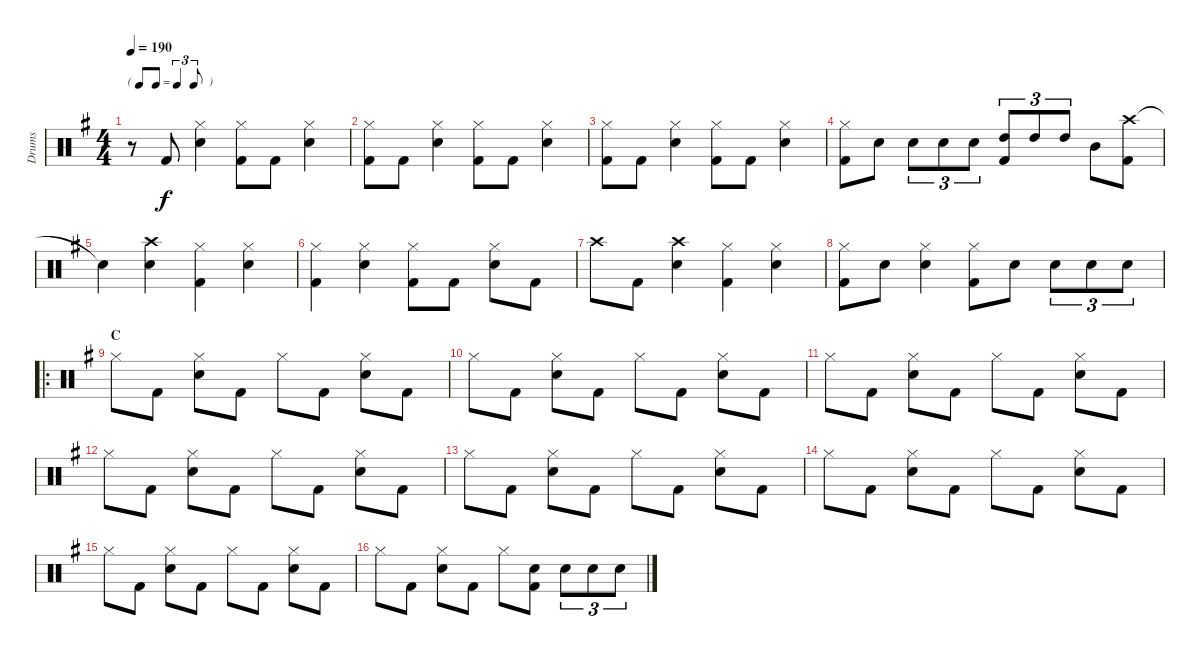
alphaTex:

\track ("Drums" "Drums") {instrument percussion}
\staff {score}
\articulation defaults
\ts (4 4)
\tf triplet8th
\tempo 190
\clef neutral
\ks g
r.8{dy f} "Kick (hit) 2".8 ("Hi-Hat (closed)" "Snare (hit) 2").4 ("Hi-Hat (closed)" "Kick (hit) 2").8 "Kick (hit) 2".8 ("Hi-Hat (closed)" "Snare (hit) 2").4 |
("Hi-Hat (closed)" "Kick (hit) 2").8 "Kick (hit) 2".8 ("Hi-Hat (closed)" "Snare (hit) 2").4 ("Hi-Hat (closed)" "Kick (hit) 2").8 "Kick (hit) 2".8 ("Hi-Hat (closed)" "Snare (hit) 2").4 |
("Hi-Hat (closed)" "Kick (hit) 2").8 "Kick (hit) 2".8 ("Hi-Hat (closed)" "Snare (hit) 2").4 ("Hi-Hat (closed)" "Kick (hit) 2").8 "Kick (hit) 2".8 ("Hi-Hat (closed)" "Snare (hit) 2").4 |
("Hi-Hat (closed)" "Kick (hit) 2").8 "Snare (hit) 2".8 "Snare (hit) 2".8{tu (3 2)} "Snare (hit) 2".8{tu (3 2)} "Snare (hit) 2".8{tu (3 2)} ("High Tom (hit)" "Kick (hit) 2").8{tu (3 2)} "High Tom (hit)".8{tu (3 2)} "High Tom (hit)".8{tu (3 2)} "Mid Tom (hit)".8 ("Crash high (hit)" "Kick (hit) 2").8 |
"Snare (hit)"{t}.4 ("Crash high (hit)" "Snare (hit) 2").4 ("Hi-Hat (closed)" "Kick (hit) 2").4 ("Hi-Hat (closed)" "Snare (hit) 2").4 |
("Hi-Hat (closed)" "Kick (hit) 2").4 ("Hi-Hat (closed)" "Snare (hit) 2").4 ("Hi-Hat (closed)" "Kick (hit) 2").8 "Kick (hit) 2".8 ("Hi-Hat (closed)" "Snare (hit) 2").8 "Kick (hit) 2".8 |
"Crash high (hit)".8 "Kick (hit) 2".8 ("Crash high (hit)" "Snare (hit) 2").4 ("Hi-Hat (closed)" "Kick (hit) 2").4 ("Hi-Hat (closed)" "Snare (hit) 2").4 |
("Hi-Hat (closed)" "Kick (hit) 2").8 "Snare (hit) 2".8 ("Hi-Hat (closed)" "Snare (hit) 2").4 ("Hi-Hat (closed)" "Kick (hit) 2").8 "Snare (hit) 2".8 "Snare (hit) 2".8{tu (3 2)} "Snare (hit) 2".8{tu (3 2)} "Snare (hit) 2".8{tu (3 2)} |
\ro
\section ("" "C")
"Hi-Hat (closed)".8 "Kick (hit) 2".8 ("Hi-Hat (closed)" "Snare (hit) 2").8 "Kick (hit) 2".8 "Hi-Hat (closed)".8 "Kick (hit) 2".8 ("Hi-Hat (closed)" "Snare (hit) 2").8 "Kick (hit) 2".8 |
"Hi-Hat (closed)".8 "Kick (hit) 2".8 ("Hi-Hat (closed)" "Snare (hit) 2").8 "Kick (hit) 2".8 "Hi-Hat (closed)".8 "Kick (hit) 2".8 ("Hi-Hat (closed)" "Snare (hit) 2").8 "Kick (hit) 2".8 |
"Hi-Hat (closed)".8 "Kick (hit) 2".8 ("Hi-Hat (closed)" "Snare (hit) 2").8 "Kick (hit) 2".8 "Hi-Hat (closed)".8 "Kick (hit) 2".8 ("Hi-Hat (closed)" "Snare (hit) 2").8 "Kick (hit) 2".8 |
"Hi-Hat (closed)".8 "Kick (hit) 2".8 ("Hi-Hat (closed)" "Snare (hit) 2").8 "Kick (hit) 2".8 "Hi-Hat (closed)".8 "Kick (hit) 2".8 ("Hi-Hat (closed)" "Snare (hit) 2").8 "Kick (hit) 2".8 |
"Hi-Hat (closed)".8 "Kick (hit) 2".8 ("Hi-Hat (closed)" "Snare (hit) 2").8 "Kick (hit) 2".8 "Hi-Hat (closed)".8 "Kick (hit) 2".8 ("Hi-Hat (closed)" "Snare (hit) 2").8 "Kick (hit) 2".8 |
"Hi-Hat (closed)".8 "Kick (hit) 2".8 ("Hi-Hat (closed)" "Snare (hit) 2").8 "Kick (hit) 2".8 "Hi-Hat (closed)".8 "Kick (hit) 2".8 ("Hi-Hat (closed)" "Snare (hit) 2").8 "Kick (hit) 2".8 |
"Hi-Hat (closed)".8 "Kick (hit) 2".8 ("Hi-Hat (closed)" "Snare (hit) 2").8 "Kick (hit) 2".8 "Hi-Hat (closed)".8 "Kick (hit) 2".8 ("Hi-Hat (closed)" "Snare (hit) 2").8 "Kick (hit) 2".8 |
"Hi-Hat (closed)".8 "Kick (hit) 2".8 ("Hi-Hat (closed)" "Snare (hit) 2").8 "Kick (hit) 2".8 "Hi-Hat (closed)".8 ("Snare (hit) 2" "Kick (hit) 2").8 "Snare (hit) 2".8{tu (3 2)} "Snare (hit) 2".8{tu (3 2)} "Snare (hit) 2".8{tu (3 2)}
